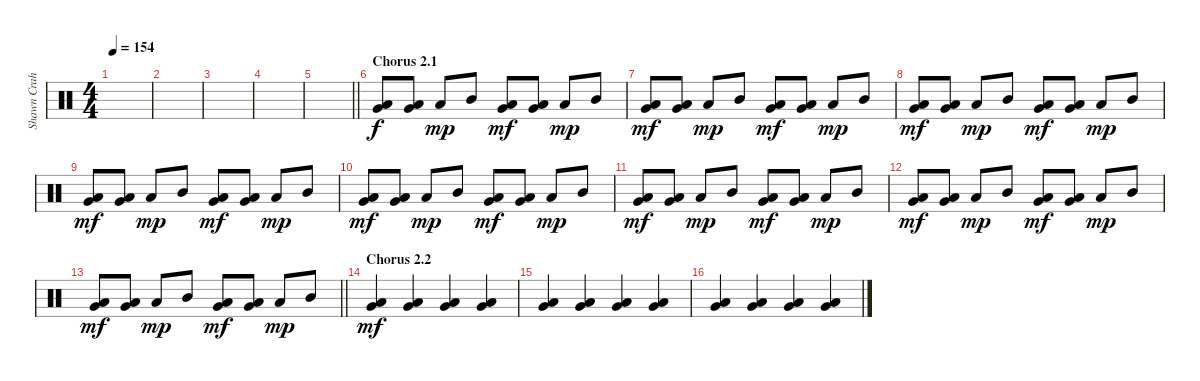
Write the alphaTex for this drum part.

\track ("Shawn Crahan" "Shawn Crah") {instrument percussion}
\staff {score}
\articulation defaults
\ts (4 4)
\tempo 154
\clef neutral
\ks c
|
|
|
|
\barLineRight lightlight
|
\section ("" "Chorus 2.1")
("Very Low Tom (hit)" "Low Floor Tom (hit)").8 ("Very Low Tom (hit)" "Low Floor Tom (hit)").8 "Low Tom (hit)".8{dy mp} "Mid Tom (hit)".8 ("Very Low Tom (hit)" "Low Floor Tom (hit)").8{dy mf} ("Very Low Tom (hit)" "Low Floor Tom (hit)").8 "Low Tom (hit)".8{dy mp} "Mid Tom (hit)".8 |
("Very Low Tom (hit)" "Low Floor Tom (hit)").8{dy mf} ("Very Low Tom (hit)" "Low Floor Tom (hit)").8 "Low Tom (hit)".8{dy mp} "Mid Tom (hit)".8 ("Very Low Tom (hit)" "Low Floor Tom (hit)").8{dy mf} ("Very Low Tom (hit)" "Low Floor Tom (hit)").8 "Low Tom (hit)".8{dy mp} "Mid Tom (hit)".8 |
("Very Low Tom (hit)" "Low Floor Tom (hit)").8{dy mf} ("Very Low Tom (hit)" "Low Floor Tom (hit)").8 "Low Tom (hit)".8{dy mp} "Mid Tom (hit)".8 ("Very Low Tom (hit)" "Low Floor Tom (hit)").8{dy mf} ("Very Low Tom (hit)" "Low Floor Tom (hit)").8 "Low Tom (hit)".8{dy mp} "Mid Tom (hit)".8 |
("Very Low Tom (hit)" "Low Floor Tom (hit)").8{dy mf} ("Very Low Tom (hit)" "Low Floor Tom (hit)").8 "Low Tom (hit)".8{dy mp} "Mid Tom (hit)".8 ("Very Low Tom (hit)" "Low Floor Tom (hit)").8{dy mf} ("Very Low Tom (hit)" "Low Floor Tom (hit)").8 "Low Tom (hit)".8{dy mp} "Mid Tom (hit)".8 |
("Very Low Tom (hit)" "Low Floor Tom (hit)").8{dy mf} ("Very Low Tom (hit)" "Low Floor Tom (hit)").8 "Low Tom (hit)".8{dy mp} "Mid Tom (hit)".8 ("Very Low Tom (hit)" "Low Floor Tom (hit)").8{dy mf} ("Very Low Tom (hit)" "Low Floor Tom (hit)").8 "Low Tom (hit)".8{dy mp} "Mid Tom (hit)".8 |
("Very Low Tom (hit)" "Low Floor Tom (hit)").8{dy mf} ("Very Low Tom (hit)" "Low Floor Tom (hit)").8 "Low Tom (hit)".8{dy mp} "Mid Tom (hit)".8 ("Very Low Tom (hit)" "Low Floor Tom (hit)").8{dy mf} ("Very Low Tom (hit)" "Low Floor Tom (hit)").8 "Low Tom (hit)".8{dy mp} "Mid Tom (hit)".8 |
("Very Low Tom (hit)" "Low Floor Tom (hit)").8{dy mf} ("Very Low Tom (hit)" "Low Floor Tom (hit)").8 "Low Tom (hit)".8{dy mp} "Mid Tom (hit)".8 ("Very Low Tom (hit)" "Low Floor Tom (hit)").8{dy mf} ("Very Low Tom (hit)" "Low Floor Tom (hit)").8 "Low Tom (hit)".8{dy mp} "Mid Tom (hit)".8 |
\barLineRight lightlight
("Very Low Tom (hit)" "Low Floor Tom (hit)").8{dy mf} ("Very Low Tom (hit)" "Low Floor Tom (hit)").8 "Low Tom (hit)".8{dy mp} "Mid Tom (hit)".8 ("Very Low Tom (hit)" "Low Floor Tom (hit)").8{dy mf} ("Very Low Tom (hit)" "Low Floor Tom (hit)").8 "Low Tom (hit)".8{dy mp} "Mid Tom (hit)".8 |
\section ("" "Chorus 2.2")
("Very Low Tom (hit)" "Low Floor Tom (hit)").4{dy mf} ("Very Low Tom (hit)" "Low Floor Tom (hit)").4 ("Very Low Tom (hit)" "Low Floor Tom (hit)").4 ("Very Low Tom (hit)" "Low Floor Tom (hit)").4 |
("Very Low Tom (hit)" "Low Floor Tom (hit)").4 ("Very Low Tom (hit)" "Low Floor Tom (hit)").4 ("Very Low Tom (hit)" "Low Floor Tom (hit)").4 ("Very Low Tom (hit)" "Low Floor Tom (hit)").4 |
("Very Low Tom (hit)" "Low Floor Tom (hit)").4 ("Very Low Tom (hit)" "Low Floor Tom (hit)").4 ("Very Low Tom (hit)" "Low Floor Tom (hit)").4 ("Very Low Tom (hit)" "Low Floor Tom (hit)").4
